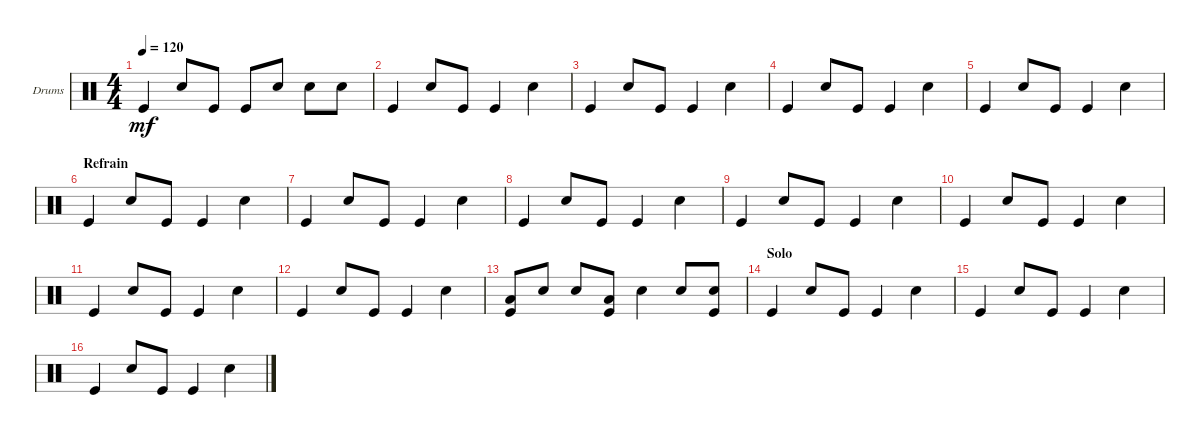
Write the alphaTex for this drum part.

\defaultSystemsLayout 4
\bracketExtendMode groupsimilarinstruments
\firstSystemTrackNameOrientation horizontal
\otherSystemsTrackNameOrientation horizontal
\track ("Drumkit" "Drums") {multiBarRest instrument percussion}
\staff {score}
\articulation defaults
\ts (4 4)
\tempo 120
\clef neutral
\ks c "Kick (hit)".4{dy mf} "Snare (hit) 2".8 "Kick (hit)".8 "Kick (hit)".8 "Snare (hit) 2".8 "Snare (hit) 2".8 "Snare (hit) 2".8
|
"Kick (hit)".4 "Snare (hit) 2".8 "Kick (hit)".8 "Kick (hit)".4 "Snare (hit) 2".4 |
"Kick (hit)".4 "Snare (hit) 2".8 "Kick (hit)".8 "Kick (hit)".4 "Snare (hit) 2".4 |
"Kick (hit)".4 "Snare (hit) 2".8 "Kick (hit)".8 "Kick (hit)".4 "Snare (hit) 2".4 |
"Kick (hit)".4 "Snare (hit) 2".8 "Kick (hit)".8 "Kick (hit)".4 "Snare (hit) 2".4 |
\section ("" "Refrain")
"Kick (hit)".4 "Snare (hit) 2".8 "Kick (hit)".8 "Kick (hit)".4 "Snare (hit) 2".4 |
"Kick (hit)".4 "Snare (hit) 2".8 "Kick (hit)".8 "Kick (hit)".4 "Snare (hit) 2".4 |
"Kick (hit)".4 "Snare (hit) 2".8 "Kick (hit)".8 "Kick (hit)".4 "Snare (hit) 2".4 |
"Kick (hit)".4 "Snare (hit) 2".8 "Kick (hit)".8 "Kick (hit)".4 "Snare (hit) 2".4 |
"Kick (hit)".4 "Snare (hit) 2".8 "Kick (hit)".8 "Kick (hit)".4 "Snare (hit) 2".4 |
"Kick (hit)".4 "Snare (hit) 2".8 "Kick (hit)".8 "Kick (hit)".4 "Snare (hit) 2".4 |
"Kick (hit)".4 "Snare (hit) 2".8 "Kick (hit)".8 "Kick (hit)".4 "Snare (hit) 2".4 |
("Kick (hit)" "Low Tom (hit)").8 "Snare (hit) 2".8 "Snare (hit) 2".8 ("Kick (hit)" "Low Tom (hit)").8 "Snare (hit) 2".4 "Snare (hit) 2".8 ("Snare (hit) 2" "Kick (hit)").8 |
\section ("" "Solo")
"Kick (hit)".4 "Snare (hit) 2".8 "Kick (hit)".8 "Kick (hit)".4 "Snare (hit) 2".4 |
"Kick (hit)".4 "Snare (hit) 2".8 "Kick (hit)".8 "Kick (hit)".4 "Snare (hit) 2".4 |
"Kick (hit)".4 "Snare (hit) 2".8 "Kick (hit)".8 "Kick (hit)".4 "Snare (hit) 2".4
